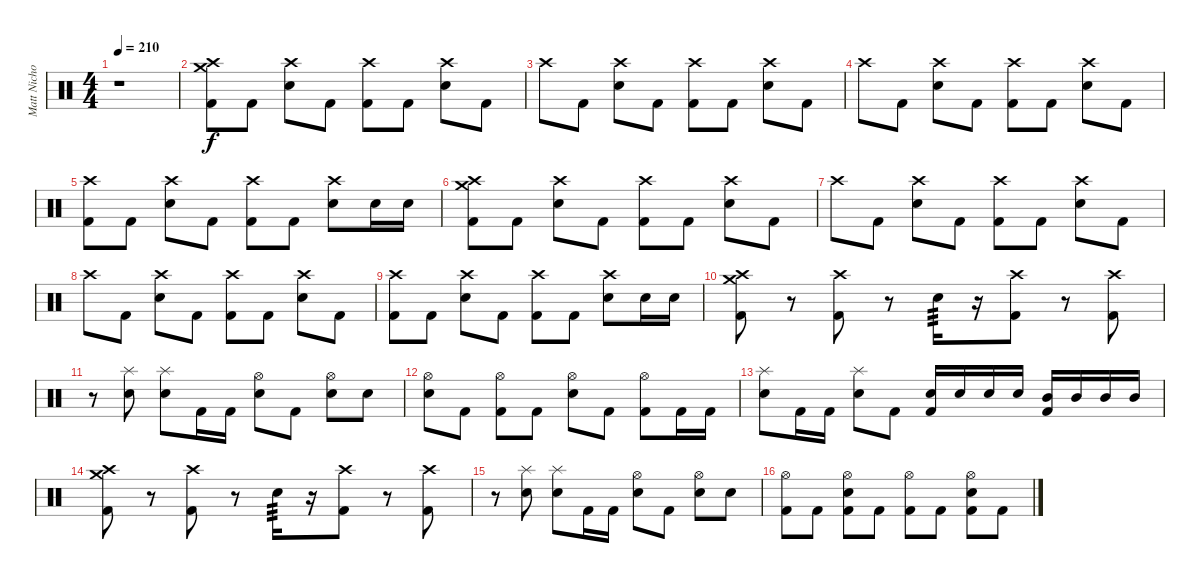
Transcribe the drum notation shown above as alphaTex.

\track ("Matt Nichols" "Matt Nicho") {instrument percussion}
\staff {score}
\articulation defaults
\ts (4 4)
\tempo 210
\clef neutral
\ks c
r.1{dy f volume 0} |
("Crash high (hit)" "Crash medium (hit)" "Kick (hit) 2").8{volume 16} "Kick (hit) 2".8 ("Crash high (hit)" "Snare (hit) 2").8 "Kick (hit) 2".8 ("Crash high (hit)" "Kick (hit) 2").8 "Kick (hit) 2".8 ("Crash high (hit)" "Snare (hit) 2").8 "Kick (hit) 2".8 |
"Crash high (hit)".8 "Kick (hit) 2".8 ("Crash high (hit)" "Snare (hit) 2").8 "Kick (hit) 2".8 ("Crash high (hit)" "Kick (hit) 2").8 "Kick (hit) 2".8 ("Crash high (hit)" "Snare (hit) 2").8 "Kick (hit) 2".8 |
"Crash high (hit)".8 "Kick (hit) 2".8 ("Crash high (hit)" "Snare (hit) 2").8 "Kick (hit) 2".8 ("Crash high (hit)" "Kick (hit) 2").8 "Kick (hit) 2".8 ("Crash high (hit)" "Snare (hit) 2").8 "Kick (hit) 2".8 |
("Crash high (hit)" "Kick (hit) 2").8 "Kick (hit) 2".8 ("Crash high (hit)" "Snare (hit) 2").8 "Kick (hit) 2".8 ("Crash high (hit)" "Kick (hit) 2").8 "Kick (hit) 2".8 ("Crash high (hit)" "Snare (hit) 2").8 "Snare (hit) 2".16 "Snare (hit) 2".16 |
("Crash high (hit)" "Crash medium (hit)" "Kick (hit) 2").8{volume 16} "Kick (hit) 2".8 ("Crash high (hit)" "Snare (hit) 2").8 "Kick (hit) 2".8 ("Crash high (hit)" "Kick (hit) 2").8 "Kick (hit) 2".8 ("Crash high (hit)" "Snare (hit) 2").8 "Kick (hit) 2".8 |
"Crash high (hit)".8 "Kick (hit) 2".8 ("Crash high (hit)" "Snare (hit) 2").8 "Kick (hit) 2".8 ("Crash high (hit)" "Kick (hit) 2").8 "Kick (hit) 2".8 ("Crash high (hit)" "Snare (hit) 2").8 "Kick (hit) 2".8 |
"Crash high (hit)".8 "Kick (hit) 2".8 ("Crash high (hit)" "Snare (hit) 2").8 "Kick (hit) 2".8 ("Crash high (hit)" "Kick (hit) 2").8 "Kick (hit) 2".8 ("Crash high (hit)" "Snare (hit) 2").8 "Kick (hit) 2".8 |
("Crash high (hit)" "Kick (hit) 2").8 "Kick (hit) 2".8 ("Crash high (hit)" "Snare (hit) 2").8 "Kick (hit) 2".8 ("Crash high (hit)" "Kick (hit) 2").8 "Kick (hit) 2".8 ("Crash high (hit)" "Snare (hit) 2").8 "Snare (hit) 2".16 "Snare (hit) 2".16 |
("Crash high (hit)" "Crash medium (hit)" "Kick (hit) 2").8 r.8 ("Crash high (hit)" "Kick (hit) 2").8 r.8 "Snare (hit) 2".16{tp 3} r.16 ("Crash high (hit)" "Kick (hit) 2").8 r.8 ("Crash high (hit)" "Kick (hit) 2").8 |
r.8 ("Splash (hit)" "Snare (hit) 2").8 ("Splash (hit)" "Snare (hit) 2").8 "Kick (hit) 2".16 "Kick (hit) 2".16 ("Hi-Hat (open)" "Snare (hit) 2").8 "Kick (hit) 2".8 ("Hi-Hat (open)" "Snare (hit) 2").8 "Snare (hit) 2".8 |
("Hi-Hat (open)" "Snare (hit) 2").8 "Kick (hit) 2".8 ("Hi-Hat (open)" "Kick (hit) 2").8 "Kick (hit) 2".8 ("Hi-Hat (open)" "Snare (hit) 2").8 "Kick (hit) 2".8 ("Hi-Hat (open)" "Kick (hit) 2").8 "Kick (hit) 2".16 "Kick (hit) 2".16 |
("Splash (hit)" "Snare (hit) 2").8 "Kick (hit) 2".16 "Kick (hit) 2".16 ("Splash (hit)" "Snare (hit) 2").8 "Kick (hit) 2".8 ("Snare (hit) 2" "Kick (hit) 2").16 "Snare (hit) 2".16 "Snare (hit) 2".16 "Snare (hit) 2".16 ("Mid Tom (hit)" "Kick (hit) 2").16 "Mid Tom (hit)".16 "Mid Tom (hit)".16 "Mid Tom (hit)".16 |
("Crash high (hit)" "Crash medium (hit)" "Kick (hit) 2").8 r.8 ("Crash high (hit)" "Kick (hit) 2").8 r.8 "Snare (hit) 2".16{tp 3} r.16 ("Crash high (hit)" "Kick (hit) 2").8 r.8 ("Crash high (hit)" "Kick (hit) 2").8 |
r.8 ("Splash (hit)" "Snare (hit) 2").8 ("Splash (hit)" "Snare (hit) 2").8 "Kick (hit) 2".16 "Kick (hit) 2".16 ("Hi-Hat (open)" "Snare (hit) 2").8 "Kick (hit) 2".8 ("Hi-Hat (open)" "Snare (hit) 2").8 "Snare (hit) 2".8 |
("Hi-Hat (open)" "Kick (hit) 2").8 "Kick (hit) 2".8 ("Hi-Hat (open)" "Snare (hit) 2" "Kick (hit) 2").8 "Kick (hit) 2".8 ("Hi-Hat (open)" "Kick (hit) 2").8 "Kick (hit) 2".8 ("Hi-Hat (open)" "Snare (hit) 2" "Kick (hit) 2").8 "Kick (hit) 2".8
